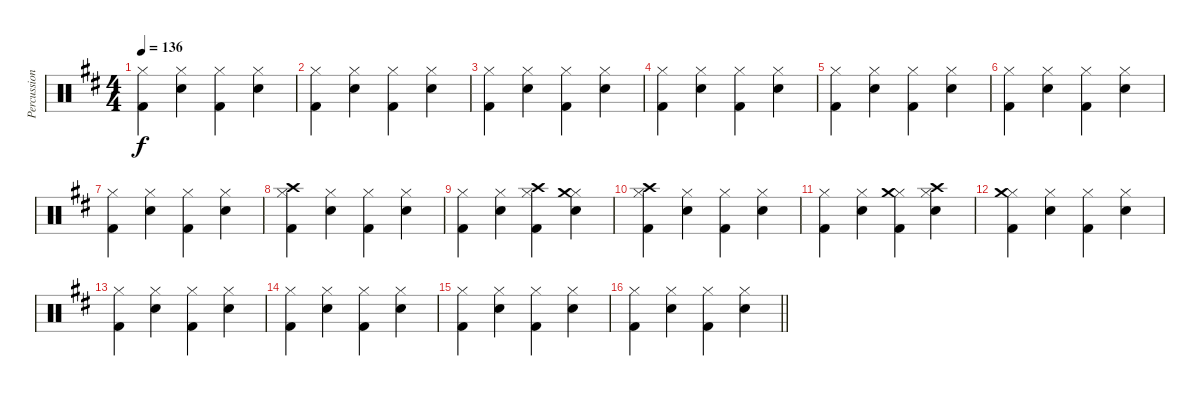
\track ("Percussions" "Percussion") {instrument percussion}
\staff {score}
\articulation defaults
\ts (4 4)
\tempo 136
\clef neutral
\ks d
("Hi-Hat (closed)" "Kick (hit) 2").4{dy f} ("Hi-Hat (closed)" "Snare (hit) 2").4 ("Hi-Hat (closed)" "Kick (hit) 2").4 ("Hi-Hat (closed)" "Snare (hit) 2").4 |
("Hi-Hat (closed)" "Kick (hit) 2").4 ("Hi-Hat (closed)" "Snare (hit) 2").4 ("Hi-Hat (closed)" "Kick (hit) 2").4 ("Hi-Hat (closed)" "Snare (hit) 2").4 |
("Hi-Hat (closed)" "Kick (hit) 2").4 ("Hi-Hat (closed)" "Snare (hit) 2").4 ("Hi-Hat (closed)" "Kick (hit) 2").4 ("Hi-Hat (closed)" "Snare (hit) 2").4 |
("Hi-Hat (closed)" "Kick (hit) 2").4 ("Hi-Hat (closed)" "Snare (hit) 2").4 ("Hi-Hat (closed)" "Kick (hit) 2").4 ("Hi-Hat (closed)" "Snare (hit) 2").4 |
("Hi-Hat (closed)" "Kick (hit) 2").4 ("Hi-Hat (closed)" "Snare (hit) 2").4 ("Hi-Hat (closed)" "Kick (hit) 2").4 ("Hi-Hat (closed)" "Snare (hit) 2").4 |
("Hi-Hat (closed)" "Kick (hit) 2").4 ("Hi-Hat (closed)" "Snare (hit) 2").4 ("Hi-Hat (closed)" "Kick (hit) 2").4 ("Hi-Hat (closed)" "Snare (hit) 2").4 |
("Hi-Hat (closed)" "Kick (hit) 2").4 ("Hi-Hat (closed)" "Snare (hit) 2").4 ("Hi-Hat (closed)" "Kick (hit) 2").4 ("Hi-Hat (closed)" "Snare (hit) 2").4 |
("Hi-Hat (closed)" "Kick (hit) 2" "Crash high (hit)").4 ("Hi-Hat (closed)" "Snare (hit) 2").4 ("Hi-Hat (closed)" "Kick (hit) 2").4 ("Hi-Hat (closed)" "Snare (hit) 2").4 |
("Hi-Hat (closed)" "Kick (hit) 2").4 ("Hi-Hat (closed)" "Snare (hit) 2").4 ("Hi-Hat (closed)" "Kick (hit) 2" "Crash high (hit)").4 ("Hi-Hat (closed)" "Snare (hit) 2" "Crash medium (hit)").4 |
("Hi-Hat (closed)" "Kick (hit) 2" "Crash high (hit)").4 ("Hi-Hat (closed)" "Snare (hit) 2").4 ("Hi-Hat (closed)" "Kick (hit) 2").4 ("Hi-Hat (closed)" "Snare (hit) 2").4 |
("Hi-Hat (closed)" "Kick (hit) 2").4 ("Hi-Hat (closed)" "Snare (hit) 2").4 ("Hi-Hat (closed)" "Kick (hit) 2" "Crash medium (hit)").4 ("Hi-Hat (closed)" "Snare (hit) 2" "Crash high (hit)").4 |
("Hi-Hat (closed)" "Kick (hit) 2" "Crash medium (hit)").4 ("Hi-Hat (closed)" "Snare (hit) 2").4 ("Hi-Hat (closed)" "Kick (hit) 2").4 ("Hi-Hat (closed)" "Snare (hit) 2").4 |
("Hi-Hat (closed)" "Kick (hit) 2").4 ("Hi-Hat (closed)" "Snare (hit) 2").4 ("Hi-Hat (closed)" "Kick (hit) 2").4 ("Hi-Hat (closed)" "Snare (hit) 2").4 |
("Hi-Hat (closed)" "Kick (hit) 2").4 ("Hi-Hat (closed)" "Snare (hit) 2").4 ("Hi-Hat (closed)" "Kick (hit) 2").4 ("Hi-Hat (closed)" "Snare (hit) 2").4 |
("Hi-Hat (closed)" "Kick (hit) 2").4 ("Hi-Hat (closed)" "Snare (hit) 2").4 ("Hi-Hat (closed)" "Kick (hit) 2").4 ("Hi-Hat (closed)" "Snare (hit) 2").4 |
\barLineRight lightlight
("Hi-Hat (closed)" "Kick (hit) 2").4 ("Hi-Hat (closed)" "Snare (hit) 2").4 ("Hi-Hat (closed)" "Kick (hit) 2").4 ("Hi-Hat (closed)" "Snare (hit) 2").4
